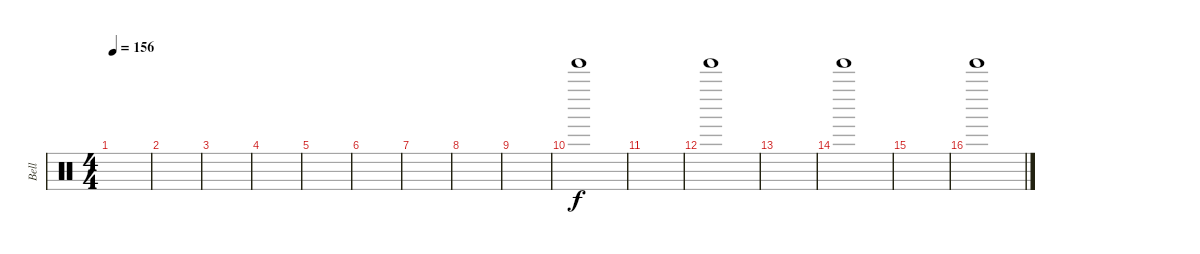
\track ("Bell" "Bell") {instrument percussion}
\staff {score}
\articulation defaults
\ts (4 4)
\tempo 156
\clef neutral
\ks c
|
|
|
|
|
|
|
|
|
"Tinkle Bell (hit)".1 |
|
"Tinkle Bell (hit)".1 |
|
"Tinkle Bell (hit)".1 |
|
"Tinkle Bell (hit)".1
